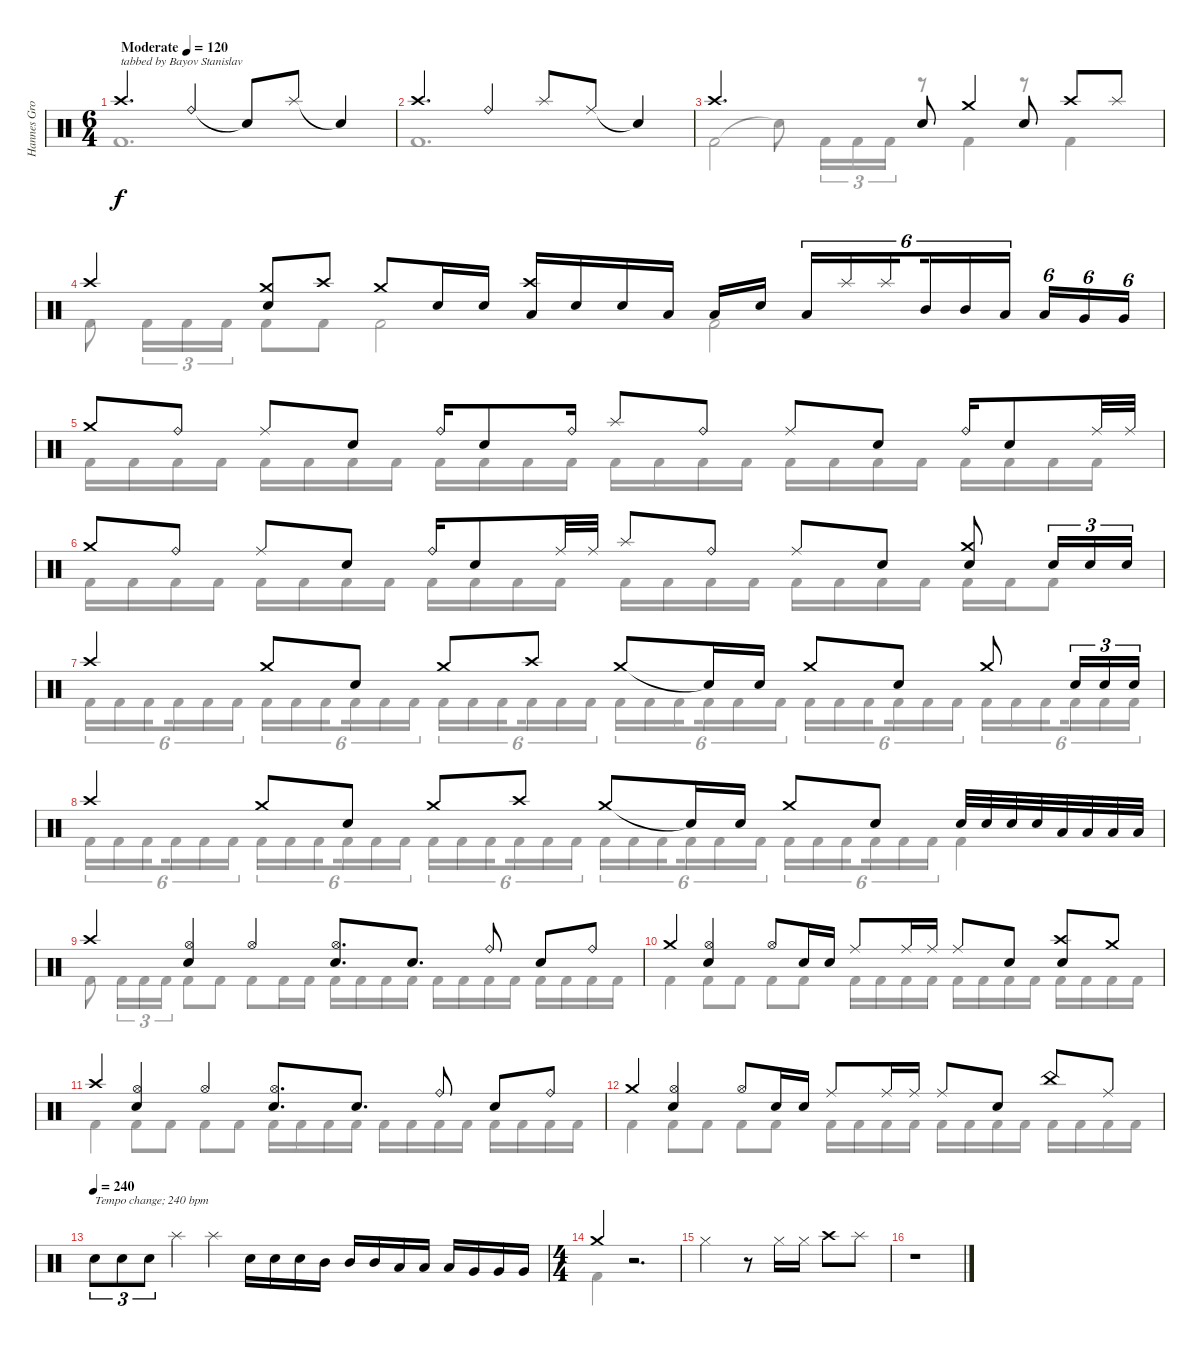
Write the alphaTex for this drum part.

\track ("Hannes Grossmann - drums" "Hannes Gro") {instrument percussion}
\staff {score}
\articulation defaults
\voice
\ts (6 4)
\tempo (120 "Moderate")
\clef neutral
\ks c "Crash high (hit)".2{d txt "tabbed by Bayov Stanislav" dy f} "Ride (bell)".4 "Snare (hit)"{t}.8 "Splash (hit)".8 "Snare (hit)"{t}.4
|
"Crash high (hit)".2{d} "Ride (bell)".4 "Splash (hit)".8 "Ride (middle)".8 "Snare (hit)"{t}.4 |
"Crash high (hit)".2{d} "Electric Snare (hit)".8 "Crash medium (hit)".4 "Electric Snare (hit)".8 "Crash high (hit)".8 "Splash (hit)".8 |
"Crash high (hit)".4 ("Crash medium (hit)" "Electric Snare (hit)").8 "Crash high (hit)".8 "Crash medium (hit)".8 "Electric Snare (hit)".16 "Electric Snare (hit)".16 ("Crash high (hit)" "Low Tom (hit)").16 "Electric Snare (hit)".16 "Electric Snare (hit)".16 "Low Tom (hit)".16 "Low Tom (hit)".16 "Electric Snare (hit)".16{beam splitsecondary} "Low Tom (hit)".16{tu (6 4)} "Splash (hit)".16{tu (6 4)} "Splash (hit)".16{tu (6 4) beam splitsecondary} "Mid Tom (hit)".16{tu (6 4)} "Mid Tom (hit)".16{tu (6 4)} "Low Tom (hit)".16{tu (6 4) beam splitsecondary} "Low Tom (hit)".16{tu (6 4)} "Very Low Tom (hit)".16{tu (6 4)} "Very Low Tom (hit)".16{tu (6 4)} |
"Crash medium (hit)".8 "Ride (bell)".8 "Ride (middle)".8 "Electric Snare (hit)".8 "Ride (bell)".16 "Electric Snare (hit)".8 "Ride (bell)".16 "Splash (hit)".8 "Ride (bell)".8 "Ride (middle)".8 "Electric Snare (hit)".8 "Ride (bell)".16 "Electric Snare (hit)".8 "Ride (middle)".32 "Ride (middle)".32 |
"Crash medium (hit)".8 "Ride (bell)".8 "Ride (middle)".8 "Electric Snare (hit)".8 "Ride (bell)".16 "Electric Snare (hit)".8 "Ride (middle)".32 "Ride (middle)".32 "Splash (hit)".8 "Ride (bell)".8 "Ride (middle)".8 "Electric Snare (hit)".8 ("Crash medium (hit)" "Electric Snare (hit)").8 "Electric Snare (hit)".16{tu (3 2)} "Electric Snare (hit)".16{tu (3 2)} "Electric Snare (hit)".16{tu (3 2)} |
"Crash high (hit)".4 "Crash medium (hit)".8 "Electric Snare (hit)".8 "Crash medium (hit)".8 "Crash high (hit)".8 "Crash medium (hit)".8 "Snare (hit)"{t}.16 "Electric Snare (hit)".16 "Crash medium (hit)".8 "Electric Snare (hit)".8 "Crash medium (hit)".8 "Electric Snare (hit)".16{tu (3 2)} "Electric Snare (hit)".16{tu (3 2)} "Electric Snare (hit)".16{tu (3 2)} |
"Crash high (hit)".4 "Crash medium (hit)".8 "Electric Snare (hit)".8 "Crash medium (hit)".8 "Crash high (hit)".8 "Crash medium (hit)".8 "Snare (hit)"{t}.16 "Electric Snare (hit)".16 "Crash medium (hit)".8 "Electric Snare (hit)".8 "Electric Snare (hit)".32 "Electric Snare (hit)".32 "Electric Snare (hit)".32 "Electric Snare (hit)".32 "Low Tom (hit)".32 "Low Tom (hit)".32 "Low Tom (hit)".32 "Low Tom (hit)".32 |
"Crash high (hit)".4 ("Hi-Hat (open)" "Electric Snare (hit)").4 "Hi-Hat (open)".4 ("Hi-Hat (open)" "Electric Snare (hit)").8{d} "Electric Snare (hit)".8{d} "Ride (bell)".8 "Electric Snare (hit)".8 "Ride (bell)".8 |
"Crash medium (hit)".4 ("Hi-Hat (open)" "Electric Snare (hit)").4 "Hi-Hat (open)".8 "Electric Snare (hit)".16 "Electric Snare (hit)".16 "Ride (middle)".8 "Ride (middle)".16 "Ride (middle)".16 "Ride (middle)".8 "Electric Snare (hit)".8 ("Crash high (hit)" "Electric Snare (hit)").8 "Crash medium (hit)".8 |
"Crash high (hit)".4 ("Hi-Hat (open)" "Electric Snare (hit)").4 "Hi-Hat (open)".4 ("Hi-Hat (open)" "Electric Snare (hit)").8{d} "Electric Snare (hit)".8{d} "Ride (bell)".8 "Electric Snare (hit)".8 "Ride (bell)".8 |
"Crash medium (hit)".4 ("Hi-Hat (open)" "Electric Snare (hit)").4 "Hi-Hat (open)".8 "Electric Snare (hit)".16 "Electric Snare (hit)".16 "Ride (middle)".8 "Ride (middle)".16 "Ride (middle)".16 "Ride (middle)".8 "Electric Snare (hit)".8 "China (hit)".8 "Ride (middle)".8 |
\tempo (240)
"Electric Snare (hit)".8{tu (3 2) txt "Tempo change; 240 bpm"} "Electric Snare (hit)".8{tu (3 2)} "Electric Snare (hit)".8{tu (3 2)} "Splash (hit)".4 "Splash (hit)".4 "Electric Snare (hit)".16 "Electric Snare (hit)".16 "Electric Snare (hit)".16 "Mid Tom (hit)".16 "Mid Tom (hit)".16 "Mid Tom (hit)".16 "Low Tom (hit)".16 "Low Tom (hit)".16 "Low Tom (hit)".16 "Very Low Tom (hit)".16 "Very Low Tom (hit)".16 "Very Low Tom (hit)".16 |
\ts (4 4)
"Crash medium (hit)".4 r.2{d} |
"Hi-Hat (closed)".2 r.8 "Hi-Hat (closed)".16 "Hi-Hat (closed)".16 "Crash high (hit)".8 "Splash (hit)".8 |
r.1
\voice
\clef neutral
\ottava regular
\simile none
\ks c "Kick (hit) 2".1{d dy f}
|
"Kick (hit) 2".1{d} |
"Kick (hit) 2".2 "Snare (hit)"{t}.8 "Kick (hit) 2".16{tu (3 2)} "Kick (hit) 2".16{tu (3 2)} "Kick (hit) 2".16{tu (3 2)} r.8 "Kick (hit) 2".4 r.8 "Kick (hit) 2".4 |
"Kick (hit) 2".8 "Kick (hit) 2".16{tu (3 2)} "Kick (hit) 2".16{tu (3 2)} "Kick (hit) 2".16{tu (3 2)} "Kick (hit) 2".8 "Kick (hit) 2".8 "Kick (hit) 2".2 "Kick (hit) 2".2 |
"Kick (hit) 2".16 "Kick (hit) 2".16 "Kick (hit) 2".16 "Kick (hit) 2".16 "Kick (hit) 2".16 "Kick (hit) 2".16 "Kick (hit) 2".16 "Kick (hit) 2".16 "Kick (hit) 2".16 "Kick (hit) 2".16 "Kick (hit) 2".16 "Kick (hit) 2".16 "Kick (hit) 2".16 "Kick (hit) 2".16 "Kick (hit) 2".16 "Kick (hit) 2".16 "Kick (hit) 2".16 "Kick (hit) 2".16 "Kick (hit) 2".16 "Kick (hit) 2".16 "Kick (hit) 2".16 "Kick (hit) 2".16 "Kick (hit) 2".16 "Kick (hit) 2".16 |
"Kick (hit) 2".16 "Kick (hit) 2".16 "Kick (hit) 2".16 "Kick (hit) 2".16 "Kick (hit) 2".16 "Kick (hit) 2".16 "Kick (hit) 2".16 "Kick (hit) 2".16 "Kick (hit) 2".16 "Kick (hit) 2".16 "Kick (hit) 2".16 "Kick (hit) 2".16 "Kick (hit) 2".16 "Kick (hit) 2".16 "Kick (hit) 2".16 "Kick (hit) 2".16 "Kick (hit) 2".16 "Kick (hit) 2".16 "Kick (hit) 2".16 "Kick (hit) 2".16 "Kick (hit) 2".16 "Kick (hit) 2".16 "Kick (hit) 2".8 |
"Kick (hit) 2".16{tu (6 4)} "Kick (hit) 2".16{tu (6 4)} "Kick (hit) 2".16{tu (6 4) beam splitsecondary} "Kick (hit) 2".16{tu (6 4)} "Kick (hit) 2".16{tu (6 4)} "Kick (hit) 2".16{tu (6 4) beam splitsecondary} "Kick (hit) 2".16{tu (6 4)} "Kick (hit) 2".16{tu (6 4)} "Kick (hit) 2".16{tu (6 4) beam splitsecondary} "Kick (hit) 2".16{tu (6 4)} "Kick (hit) 2".16{tu (6 4)} "Kick (hit) 2".16{tu (6 4) beam splitsecondary} "Kick (hit) 2".16{tu (6 4)} "Kick (hit) 2".16{tu (6 4)} "Kick (hit) 2".16{tu (6 4) beam splitsecondary} "Kick (hit) 2".16{tu (6 4)} "Kick (hit) 2".16{tu (6 4)} "Kick (hit) 2".16{tu (6 4)} "Kick (hit) 2".16{tu (6 4)} "Kick (hit) 2".16{tu (6 4)} "Kick (hit) 2".16{tu (6 4) beam splitsecondary} "Kick (hit) 2".16{tu (6 4)} "Kick (hit) 2".16{tu (6 4)} "Kick (hit) 2".16{tu (6 4) beam splitsecondary} "Kick (hit) 2".16{tu (6 4)} "Kick (hit) 2".16{tu (6 4)} "Kick (hit) 2".16{tu (6 4) beam splitsecondary} "Kick (hit) 2".16{tu (6 4)} "Kick (hit) 2".16{tu (6 4)} "Kick (hit) 2".16{tu (6 4) beam splitsecondary} "Kick (hit) 2".16{tu (6 4)} "Kick (hit) 2".16{tu (6 4)} "Kick (hit) 2".16{tu (6 4) beam splitsecondary} "Kick (hit) 2".16{tu (6 4)} "Kick (hit) 2".16{tu (6 4)} "Kick (hit) 2".16{tu (6 4)} |
"Kick (hit) 2".16{tu (6 4)} "Kick (hit) 2".16{tu (6 4)} "Kick (hit) 2".16{tu (6 4) beam splitsecondary} "Kick (hit) 2".16{tu (6 4)} "Kick (hit) 2".16{tu (6 4)} "Kick (hit) 2".16{tu (6 4) beam splitsecondary} "Kick (hit) 2".16{tu (6 4)} "Kick (hit) 2".16{tu (6 4)} "Kick (hit) 2".16{tu (6 4) beam splitsecondary} "Kick (hit) 2".16{tu (6 4)} "Kick (hit) 2".16{tu (6 4)} "Kick (hit) 2".16{tu (6 4) beam splitsecondary} "Kick (hit) 2".16{tu (6 4)} "Kick (hit) 2".16{tu (6 4)} "Kick (hit) 2".16{tu (6 4) beam splitsecondary} "Kick (hit) 2".16{tu (6 4)} "Kick (hit) 2".16{tu (6 4)} "Kick (hit) 2".16{tu (6 4)} "Kick (hit) 2".16{tu (6 4)} "Kick (hit) 2".16{tu (6 4)} "Kick (hit) 2".16{tu (6 4) beam splitsecondary} "Kick (hit) 2".16{tu (6 4)} "Kick (hit) 2".16{tu (6 4)} "Kick (hit) 2".16{tu (6 4) beam splitsecondary} "Kick (hit) 2".16{tu (6 4)} "Kick (hit) 2".16{tu (6 4)} "Kick (hit) 2".16{tu (6 4) beam splitsecondary} "Kick (hit) 2".16{tu (6 4)} "Kick (hit) 2".16{tu (6 4)} "Kick (hit) 2".16{tu (6 4)} "Kick (hit) 2".4 |
"Kick (hit) 2".8 "Kick (hit) 2".16{tu (3 2)} "Kick (hit) 2".16{tu (3 2)} "Kick (hit) 2".16{tu (3 2)} "Kick (hit) 2".8 "Kick (hit) 2".8 "Kick (hit) 2".8 "Kick (hit) 2".16 "Kick (hit) 2".16 "Kick (hit) 2".16 "Kick (hit) 2".16 "Kick (hit) 2".16 "Kick (hit) 2".16 "Kick (hit) 2".16 "Kick (hit) 2".16 "Kick (hit) 2".16 "Kick (hit) 2".16 "Kick (hit) 2".16 "Kick (hit) 2".16 "Kick (hit) 2".16 "Kick (hit) 2".16 |
"Kick (hit) 2".4 "Kick (hit) 2".8 "Kick (hit) 2".8 "Kick (hit) 2".8 "Kick (hit) 2".8 "Kick (hit) 2".16 "Kick (hit) 2".16 "Kick (hit) 2".16 "Kick (hit) 2".16 "Kick (hit) 2".16 "Kick (hit) 2".16 "Kick (hit) 2".16 "Kick (hit) 2".16 "Kick (hit) 2".16 "Kick (hit) 2".16 "Kick (hit) 2".16 "Kick (hit) 2".16 |
"Kick (hit) 2".4 "Kick (hit) 2".8 "Kick (hit) 2".8 "Kick (hit) 2".8 "Kick (hit) 2".8 "Kick (hit) 2".16 "Kick (hit) 2".16 "Kick (hit) 2".16 "Kick (hit) 2".16 "Kick (hit) 2".16 "Kick (hit) 2".16 "Kick (hit) 2".16 "Kick (hit) 2".16 "Kick (hit) 2".16 "Kick (hit) 2".16 "Kick (hit) 2".16 "Kick (hit) 2".16 |
"Kick (hit) 2".4 "Kick (hit) 2".8 "Kick (hit) 2".8 "Kick (hit) 2".8 "Kick (hit) 2".8 "Kick (hit) 2".16 "Kick (hit) 2".16 "Kick (hit) 2".16 "Kick (hit) 2".16 "Kick (hit) 2".16 "Kick (hit) 2".16 "Kick (hit) 2".16 "Kick (hit) 2".16 "Kick (hit) 2".16 "Kick (hit) 2".16 "Kick (hit) 2".16 "Kick (hit) 2".16 |
|
"Kick (hit) 2".4 r.2{d} |
|
